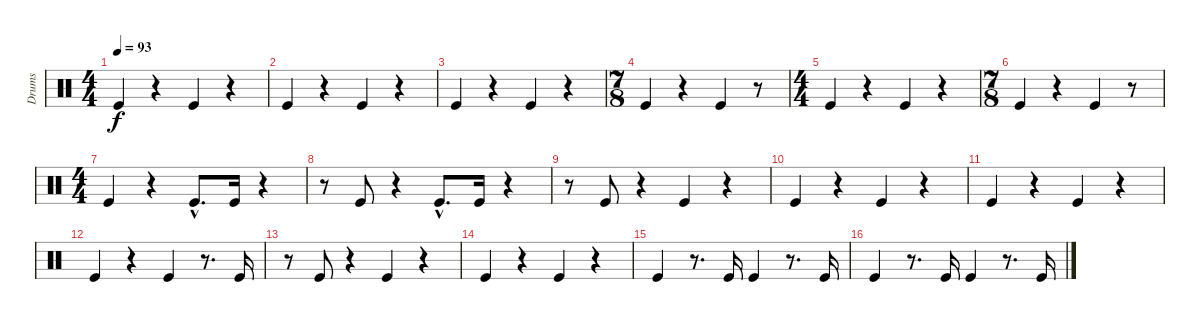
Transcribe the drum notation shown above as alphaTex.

\track ("Drums" "Drums") {instrument percussion}
\staff {score}
\articulation defaults
\ts (4 4)
\tempo 93
\clef neutral
\ks c "Kick (hit)".4{dy f}
r.4 "Kick (hit)".4 r.4 |
"Kick (hit)".4 r.4 "Kick (hit)".4 r.4 |
"Kick (hit)".4 r.4 "Kick (hit)".4 r.4 |
\ts (7 8)
"Kick (hit)".4 r.4 "Kick (hit)".4 r.8 |
\ts (4 4)
"Kick (hit)".4 r.4 "Kick (hit)".4 r.4 |
\ts (7 8)
"Kick (hit)".4 r.4 "Kick (hit)".4 r.8 |
\ts (4 4)
"Kick (hit)".4 r.4 "Kick (hit)"{hac}.8{d} "Kick (hit)".16 r.4 |
r.8 "Kick (hit)".8 r.4 "Kick (hit)"{hac}.8{d} "Kick (hit)".16 r.4 |
r.8 "Kick (hit)".8 r.4 "Kick (hit)".4 r.4 |
"Kick (hit)".4 r.4 "Kick (hit)".4 r.4 |
"Kick (hit)".4 r.4 "Kick (hit)".4 r.4 |
"Kick (hit)".4 r.4 "Kick (hit)".4 r.8{d} "Kick (hit)".16 |
r.8 "Kick (hit)".8 r.4 "Kick (hit)".4 r.4 |
"Kick (hit)".4 r.4 "Kick (hit)".4 r.4 |
"Kick (hit)".4 r.8{d} "Kick (hit)".16 "Kick (hit)".4 r.8{d} "Kick (hit)".16 |
"Kick (hit)".4 r.8{d} "Kick (hit)".16 "Kick (hit)".4 r.8{d} "Kick (hit)".16
